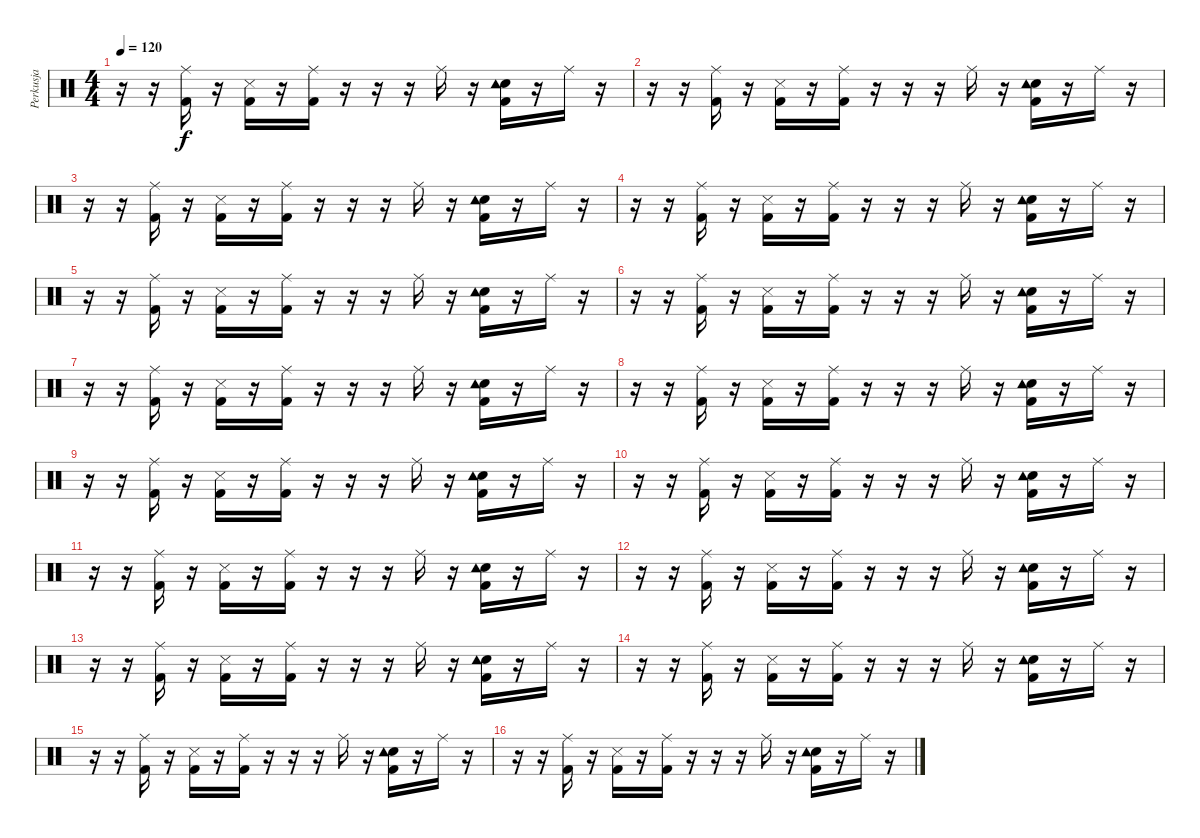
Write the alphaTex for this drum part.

\track ("Perkusja" "Perkusja") {instrument percussion}
\staff {score}
\articulation defaults
\ts (4 4)
\tempo 120
\clef neutral
\ks c
r.16{dy f} r.16 ("Kick (hit) 2" "Ride (middle)").16 r.16 ("Snare (side stick) 3" "Kick (hit) 2").16 r.16 ("Kick (hit) 2" "Ride (middle)").16 r.16 r.16 r.16 "Ride (middle)".16 r.16 ("Electric Snare (hit)" "Tambourine (hit)" "Kick (hit) 2").16 r.16 "Ride (middle)".16 r.16 |
r.16 r.16 ("Kick (hit) 2" "Ride (middle)").16 r.16 ("Snare (side stick) 3" "Kick (hit) 2").16 r.16 ("Kick (hit) 2" "Ride (middle)").16 r.16 r.16 r.16 "Ride (middle)".16 r.16 ("Electric Snare (hit)" "Tambourine (hit)" "Kick (hit) 2").16 r.16 "Ride (middle)".16 r.16 |
r.16 r.16 ("Kick (hit) 2" "Ride (middle)").16 r.16 ("Snare (side stick) 3" "Kick (hit) 2").16 r.16 ("Kick (hit) 2" "Ride (middle)").16 r.16 r.16 r.16 "Ride (middle)".16 r.16 ("Electric Snare (hit)" "Tambourine (hit)" "Kick (hit) 2").16 r.16 "Ride (middle)".16 r.16 |
r.16 r.16 ("Kick (hit) 2" "Ride (middle)").16 r.16 ("Snare (side stick) 3" "Kick (hit) 2").16 r.16 ("Kick (hit) 2" "Ride (middle)").16 r.16 r.16 r.16 "Ride (middle)".16 r.16 ("Electric Snare (hit)" "Tambourine (hit)" "Kick (hit) 2").16 r.16 "Ride (middle)".16 r.16 |
r.16 r.16 ("Kick (hit) 2" "Ride (middle)").16 r.16 ("Snare (side stick) 3" "Kick (hit) 2").16 r.16 ("Kick (hit) 2" "Ride (middle)").16 r.16 r.16 r.16 "Ride (middle)".16 r.16 ("Electric Snare (hit)" "Tambourine (hit)" "Kick (hit) 2").16 r.16 "Ride (middle)".16 r.16 |
r.16 r.16 ("Kick (hit) 2" "Ride (middle)").16 r.16 ("Snare (side stick) 3" "Kick (hit) 2").16 r.16 ("Kick (hit) 2" "Ride (middle)").16 r.16 r.16 r.16 "Ride (middle)".16 r.16 ("Electric Snare (hit)" "Tambourine (hit)" "Kick (hit) 2").16 r.16 "Ride (middle)".16 r.16 |
r.16 r.16 ("Kick (hit) 2" "Ride (middle)").16 r.16 ("Snare (side stick) 3" "Kick (hit) 2").16 r.16 ("Kick (hit) 2" "Ride (middle)").16 r.16 r.16 r.16 "Ride (middle)".16 r.16 ("Electric Snare (hit)" "Tambourine (hit)" "Kick (hit) 2").16 r.16 "Ride (middle)".16 r.16 |
r.16 r.16 ("Kick (hit) 2" "Ride (middle)").16 r.16 ("Snare (side stick) 3" "Kick (hit) 2").16 r.16 ("Kick (hit) 2" "Ride (middle)").16 r.16 r.16 r.16 "Ride (middle)".16 r.16 ("Electric Snare (hit)" "Tambourine (hit)" "Kick (hit) 2").16 r.16 "Ride (middle)".16 r.16 |
r.16 r.16 ("Kick (hit) 2" "Ride (middle)").16 r.16 ("Snare (side stick) 3" "Kick (hit) 2").16 r.16 ("Kick (hit) 2" "Ride (middle)").16 r.16 r.16 r.16 "Ride (middle)".16 r.16 ("Electric Snare (hit)" "Tambourine (hit)" "Kick (hit) 2").16 r.16 "Ride (middle)".16 r.16 |
r.16 r.16 ("Kick (hit) 2" "Ride (middle)").16 r.16 ("Snare (side stick) 3" "Kick (hit) 2").16 r.16 ("Kick (hit) 2" "Ride (middle)").16 r.16 r.16 r.16 "Ride (middle)".16 r.16 ("Electric Snare (hit)" "Tambourine (hit)" "Kick (hit) 2").16 r.16 "Ride (middle)".16 r.16 |
r.16 r.16 ("Kick (hit) 2" "Ride (middle)").16 r.16 ("Snare (side stick) 3" "Kick (hit) 2").16 r.16 ("Kick (hit) 2" "Ride (middle)").16 r.16 r.16 r.16 "Ride (middle)".16 r.16 ("Electric Snare (hit)" "Tambourine (hit)" "Kick (hit) 2").16 r.16 "Ride (middle)".16 r.16 |
r.16 r.16 ("Kick (hit) 2" "Ride (middle)").16 r.16 ("Snare (side stick) 3" "Kick (hit) 2").16 r.16 ("Kick (hit) 2" "Ride (middle)").16 r.16 r.16 r.16 "Ride (middle)".16 r.16 ("Electric Snare (hit)" "Tambourine (hit)" "Kick (hit) 2").16 r.16 "Ride (middle)".16 r.16 |
r.16 r.16 ("Kick (hit) 2" "Ride (middle)").16 r.16 ("Snare (side stick) 3" "Kick (hit) 2").16 r.16 ("Kick (hit) 2" "Ride (middle)").16 r.16 r.16 r.16 "Ride (middle)".16 r.16 ("Electric Snare (hit)" "Tambourine (hit)" "Kick (hit) 2").16 r.16 "Ride (middle)".16 r.16 |
r.16 r.16 ("Kick (hit) 2" "Ride (middle)").16 r.16 ("Snare (side stick) 3" "Kick (hit) 2").16 r.16 ("Kick (hit) 2" "Ride (middle)").16 r.16 r.16 r.16 "Ride (middle)".16 r.16 ("Electric Snare (hit)" "Tambourine (hit)" "Kick (hit) 2").16 r.16 "Ride (middle)".16 r.16 |
r.16 r.16 ("Kick (hit) 2" "Ride (middle)").16 r.16 ("Snare (side stick) 3" "Kick (hit) 2").16 r.16 ("Kick (hit) 2" "Ride (middle)").16 r.16 r.16 r.16 "Ride (middle)".16 r.16 ("Electric Snare (hit)" "Tambourine (hit)" "Kick (hit) 2").16 r.16 "Ride (middle)".16 r.16 |
r.16 r.16 ("Kick (hit) 2" "Ride (middle)").16 r.16 ("Snare (side stick) 3" "Kick (hit) 2").16 r.16 ("Kick (hit) 2" "Ride (middle)").16 r.16 r.16 r.16 "Ride (middle)".16 r.16 ("Electric Snare (hit)" "Tambourine (hit)" "Kick (hit) 2").16{volume 8} r.16 "Ride (middle)".16 r.16
